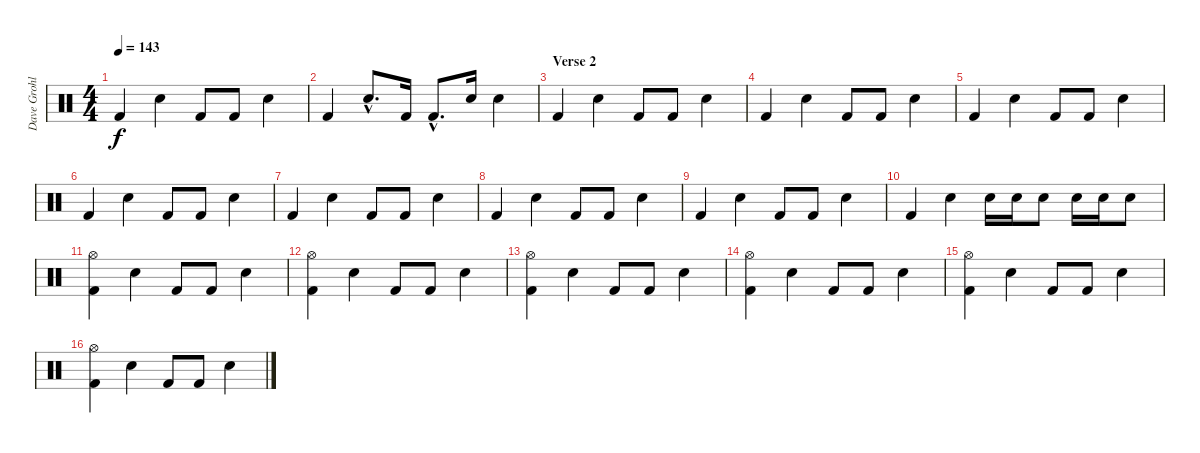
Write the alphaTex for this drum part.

\track ("Dave Grohl" "Dave Grohl") {instrument percussion}
\staff {score}
\articulation defaults
\ts (4 4)
\tempo 143
\clef neutral
\ks c "Kick (hit) 2".4{dy f} "Snare (hit) 2".4 "Kick (hit) 2".8 "Kick (hit) 2".8 "Snare (hit) 2".4
|
"Kick (hit) 2".4 "Snare (hit) 2"{hac}.8{d} "Kick (hit) 2".16 "Kick (hit) 2"{hac}.8{d} "Snare (hit) 2".16 "Snare (hit) 2".4 |
\section ("" "Verse 2")
"Kick (hit) 2".4 "Snare (hit) 2".4 "Kick (hit) 2".8 "Kick (hit) 2".8 "Snare (hit) 2".4 |
"Kick (hit) 2".4 "Snare (hit) 2".4 "Kick (hit) 2".8 "Kick (hit) 2".8 "Snare (hit) 2".4 |
"Kick (hit) 2".4 "Snare (hit) 2".4 "Kick (hit) 2".8 "Kick (hit) 2".8 "Snare (hit) 2".4 |
"Kick (hit) 2".4 "Snare (hit) 2".4 "Kick (hit) 2".8 "Kick (hit) 2".8 "Snare (hit) 2".4 |
"Kick (hit) 2".4 "Snare (hit) 2".4 "Kick (hit) 2".8 "Kick (hit) 2".8 "Snare (hit) 2".4 |
"Kick (hit) 2".4 "Snare (hit) 2".4 "Kick (hit) 2".8 "Kick (hit) 2".8 "Snare (hit) 2".4 |
"Kick (hit) 2".4 "Snare (hit) 2".4 "Kick (hit) 2".8 "Kick (hit) 2".8 "Snare (hit) 2".4 |
"Kick (hit) 2".4 "Snare (hit) 2".4 "Snare (hit) 2".16 "Snare (hit) 2".16 "Snare (hit) 2".8 "Snare (hit) 2".16 "Snare (hit) 2".16 "Snare (hit) 2".8 |
("Hi-Hat (open)" "Kick (hit) 2").4 "Snare (hit) 2".4 "Kick (hit) 2".8 "Kick (hit) 2".8 "Snare (hit) 2".4 |
("Hi-Hat (open)" "Kick (hit) 2").4 "Snare (hit) 2".4 "Kick (hit) 2".8 "Kick (hit) 2".8 "Snare (hit) 2".4 |
("Hi-Hat (open)" "Kick (hit) 2").4 "Snare (hit) 2".4 "Kick (hit) 2".8 "Kick (hit) 2".8 "Snare (hit) 2".4 |
("Hi-Hat (open)" "Kick (hit) 2").4 "Snare (hit) 2".4 "Kick (hit) 2".8 "Kick (hit) 2".8 "Snare (hit) 2".4 |
("Hi-Hat (open)" "Kick (hit) 2").4 "Snare (hit) 2".4 "Kick (hit) 2".8 "Kick (hit) 2".8 "Snare (hit) 2".4 |
("Hi-Hat (open)" "Kick (hit) 2").4 "Snare (hit) 2".4 "Kick (hit) 2".8 "Kick (hit) 2".8 "Snare (hit) 2".4
